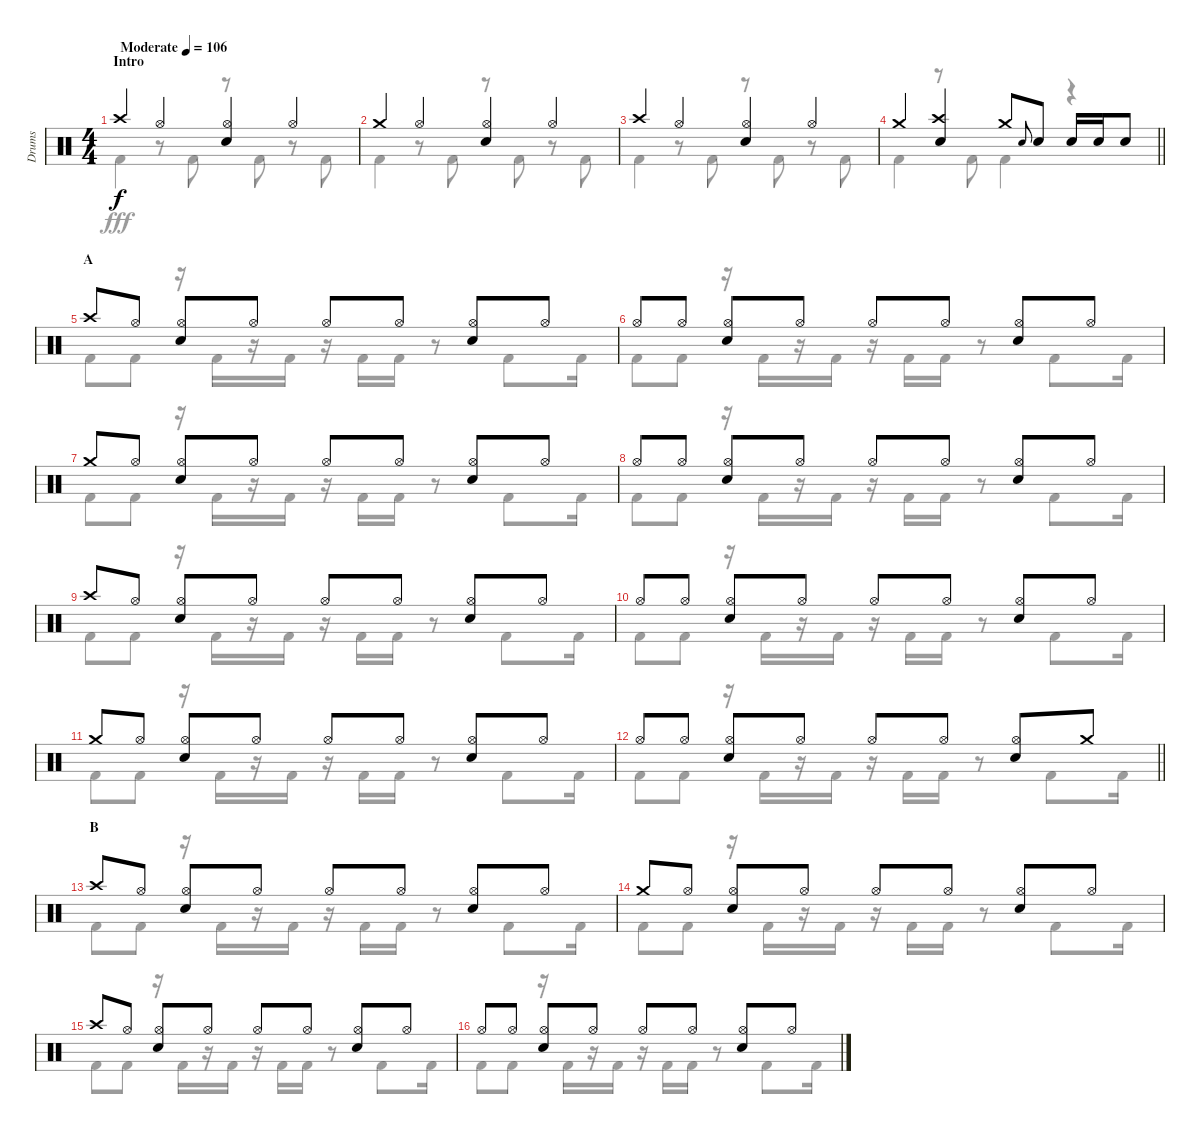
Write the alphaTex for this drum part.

\track ("Drums" "Drums") {instrument percussion}
\staff {score}
\articulation defaults
\voice
\ts (4 4)
\section ("" "Intro")
\tempo (106 "Moderate")
\clef neutral
\ks c "Crash high (hit)".4{dy f} "Hi-Hat (open)".4
("Hi-Hat (open)" "Snare (hit) 2").4 "Hi-Hat (open)".4 |
"Crash medium (hit)".4 "Hi-Hat (open)".4 ("Hi-Hat (open)" "Snare (hit) 2").4 "Hi-Hat (open)".4 |
"Crash high (hit)".4 "Hi-Hat (open)".4 ("Hi-Hat (open)" "Snare (hit) 2").4 "Hi-Hat (open)".4 |
\barLineRight lightlight "Crash medium (hit)".4
("Crash high (hit)" "Snare (hit) 2").4 "Crash medium (hit)".8 "Snare (hit) 2".8{gr onbeat} "Snare (hit) 2".8 "Snare (hit) 2".16 "Snare (hit) 2".16 "Snare (hit) 2".8 |
\section ("" "A")
"Crash high (hit)".8 "Hi-Hat (open)".8 ("Hi-Hat (open)" "Snare (hit) 2").8 "Hi-Hat (open)".8 "Hi-Hat (open)".8 "Hi-Hat (open)".8 ("Hi-Hat (open)" "Snare (hit) 2").8 "Hi-Hat (open)".8 |
"Hi-Hat (open)".8 "Hi-Hat (open)".8 ("Hi-Hat (open)" "Snare (hit) 2").8 "Hi-Hat (open)".8 "Hi-Hat (open)".8 "Hi-Hat (open)".8 ("Hi-Hat (open)" "Snare (hit) 2").8 "Hi-Hat (open)".8 |
"Crash medium (hit)".8 "Hi-Hat (open)".8 ("Hi-Hat (open)" "Snare (hit) 2").8 "Hi-Hat (open)".8 "Hi-Hat (open)".8 "Hi-Hat (open)".8 ("Hi-Hat (open)" "Snare (hit) 2").8 "Hi-Hat (open)".8 |
"Hi-Hat (open)".8 "Hi-Hat (open)".8 ("Hi-Hat (open)" "Snare (hit) 2").8 "Hi-Hat (open)".8 "Hi-Hat (open)".8 "Hi-Hat (open)".8 ("Hi-Hat (open)" "Snare (hit) 2").8 "Hi-Hat (open)".8 |
"Crash high (hit)".8 "Hi-Hat (open)".8 ("Hi-Hat (open)" "Snare (hit) 2").8 "Hi-Hat (open)".8 "Hi-Hat (open)".8 "Hi-Hat (open)".8 ("Hi-Hat (open)" "Snare (hit) 2").8 "Hi-Hat (open)".8 |
"Hi-Hat (open)".8 "Hi-Hat (open)".8 ("Hi-Hat (open)" "Snare (hit) 2").8 "Hi-Hat (open)".8 "Hi-Hat (open)".8 "Hi-Hat (open)".8 ("Hi-Hat (open)" "Snare (hit) 2").8 "Hi-Hat (open)".8 |
"Crash medium (hit)".8 "Hi-Hat (open)".8 ("Hi-Hat (open)" "Snare (hit) 2").8 "Hi-Hat (open)".8 "Hi-Hat (open)".8 "Hi-Hat (open)".8 ("Hi-Hat (open)" "Snare (hit) 2").8 "Hi-Hat (open)".8 |
\barLineRight lightlight "Hi-Hat (open)".8 "Hi-Hat (open)".8
("Hi-Hat (open)" "Snare (hit) 2").8 "Hi-Hat (open)".8 "Hi-Hat (open)".8 "Hi-Hat (open)".8 ("Hi-Hat (open)" "Snare (hit) 2").8 "Crash medium (hit)".8 |
\section ("" "B")
"Crash high (hit)".8 "Hi-Hat (open)".8 ("Hi-Hat (open)" "Snare (hit) 2").8 "Hi-Hat (open)".8 "Hi-Hat (open)".8 "Hi-Hat (open)".8 ("Hi-Hat (open)" "Snare (hit) 2").8 "Hi-Hat (open)".8 |
"Crash medium (hit)".8 "Hi-Hat (open)".8 ("Hi-Hat (open)" "Snare (hit) 2").8 "Hi-Hat (open)".8 "Hi-Hat (open)".8 "Hi-Hat (open)".8 ("Hi-Hat (open)" "Snare (hit) 2").8 "Hi-Hat (open)".8 |
"Crash high (hit)".8 "Hi-Hat (open)".8 ("Hi-Hat (open)" "Snare (hit) 2").8 "Hi-Hat (open)".8 "Hi-Hat (open)".8 "Hi-Hat (open)".8 ("Hi-Hat (open)" "Snare (hit) 2").8 "Hi-Hat (open)".8 |
"Hi-Hat (open)".8 "Hi-Hat (open)".8 ("Hi-Hat (open)" "Snare (hit) 2").8 "Hi-Hat (open)".8 "Hi-Hat (open)".8 "Hi-Hat (open)".8 ("Hi-Hat (open)" "Snare (hit) 2").8 "Hi-Hat (open)".8
\voice
\clef neutral
\ottava regular
\simile none
\ks c "Kick (hit) 2".4{dy fff}
r.8 "Kick (hit) 2".8 r.8 "Kick (hit) 2".8 r.8 "Kick (hit) 2".8 |
"Kick (hit) 2".4 r.8 "Kick (hit) 2".8 r.8 "Kick (hit) 2".8 r.8 "Kick (hit) 2".8 |
"Kick (hit) 2".4 r.8 "Kick (hit) 2".8 r.8 "Kick (hit) 2".8 r.8 "Kick (hit) 2".8 |
\barLineRight lightlight "Kick (hit) 2".4
r.8 "Kick (hit) 2".8 "Kick (hit) 2".4 r.4 |
"Kick (hit) 2".8 "Kick (hit) 2".8 r.16 "Kick (hit) 2".16 r.16 "Kick (hit) 2".16 r.16 "Kick (hit) 2".16 "Kick (hit) 2".16 r.8 "Kick (hit) 2".8 "Kick (hit) 2".16 |
"Kick (hit) 2".8 "Kick (hit) 2".8 r.16 "Kick (hit) 2".16 r.16 "Kick (hit) 2".16 r.16 "Kick (hit) 2".16 "Kick (hit) 2".16 r.8 "Kick (hit) 2".8 "Kick (hit) 2".16 |
"Kick (hit) 2".8 "Kick (hit) 2".8 r.16 "Kick (hit) 2".16 r.16 "Kick (hit) 2".16 r.16 "Kick (hit) 2".16 "Kick (hit) 2".16 r.8 "Kick (hit) 2".8 "Kick (hit) 2".16 |
"Kick (hit) 2".8 "Kick (hit) 2".8 r.16 "Kick (hit) 2".16 r.16 "Kick (hit) 2".16 r.16 "Kick (hit) 2".16 "Kick (hit) 2".16 r.8 "Kick (hit) 2".8 "Kick (hit) 2".16 |
"Kick (hit) 2".8 "Kick (hit) 2".8 r.16 "Kick (hit) 2".16 r.16 "Kick (hit) 2".16 r.16 "Kick (hit) 2".16 "Kick (hit) 2".16 r.8 "Kick (hit) 2".8 "Kick (hit) 2".16 |
"Kick (hit) 2".8 "Kick (hit) 2".8 r.16 "Kick (hit) 2".16 r.16 "Kick (hit) 2".16 r.16 "Kick (hit) 2".16 "Kick (hit) 2".16 r.8 "Kick (hit) 2".8 "Kick (hit) 2".16 |
"Kick (hit) 2".8 "Kick (hit) 2".8 r.16 "Kick (hit) 2".16 r.16 "Kick (hit) 2".16 r.16 "Kick (hit) 2".16 "Kick (hit) 2".16 r.8 "Kick (hit) 2".8 "Kick (hit) 2".16 |
\barLineRight lightlight "Kick (hit) 2".8 "Kick (hit) 2".8
r.16 "Kick (hit) 2".16 r.16 "Kick (hit) 2".16 r.16 "Kick (hit) 2".16 "Kick (hit) 2".16 r.8 "Kick (hit) 2".8 "Kick (hit) 2".16 |
"Kick (hit) 2".8 "Kick (hit) 2".8 r.16 "Kick (hit) 2".16 r.16 "Kick (hit) 2".16 r.16 "Kick (hit) 2".16 "Kick (hit) 2".16 r.8 "Kick (hit) 2".8 "Kick (hit) 2".16 |
"Kick (hit) 2".8 "Kick (hit) 2".8 r.16 "Kick (hit) 2".16 r.16 "Kick (hit) 2".16 r.16 "Kick (hit) 2".16 "Kick (hit) 2".16 r.8 "Kick (hit) 2".8 "Kick (hit) 2".16 |
"Kick (hit) 2".8 "Kick (hit) 2".8 r.16 "Kick (hit) 2".16 r.16 "Kick (hit) 2".16 r.16 "Kick (hit) 2".16 "Kick (hit) 2".16 r.8 "Kick (hit) 2".8 "Kick (hit) 2".16 |
"Kick (hit) 2".8 "Kick (hit) 2".8 r.16 "Kick (hit) 2".16 r.16 "Kick (hit) 2".16 r.16 "Kick (hit) 2".16 "Kick (hit) 2".16 r.8 "Kick (hit) 2".8 "Kick (hit) 2".16
